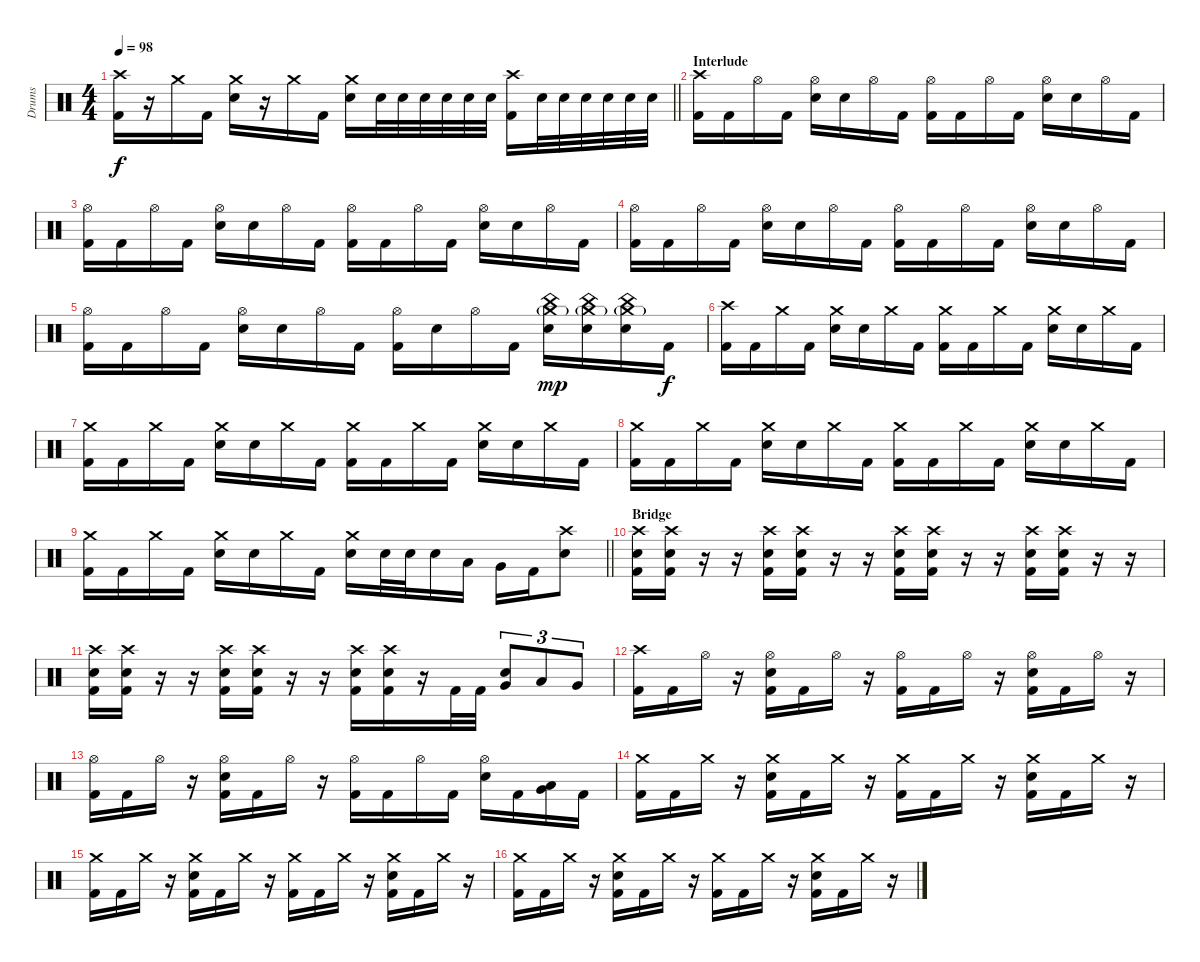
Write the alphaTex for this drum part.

\track ("Drums" "Drums") {instrument percussion}
\staff {score}
\articulation defaults
\ts (4 4)
\tempo 98
\clef neutral
\barLineRight lightlight
\ks c
("Crash high (hit)" "Kick (hit) 2").16{dy f} r.16 "Crash medium (hit)".16 "Kick (hit) 2".16 ("Crash medium (hit)" "Snare (hit) 2").16 r.16 "Crash medium (hit)".16 "Kick (hit) 2".16 ("Crash medium (hit)" "Snare (hit) 2").16 "Snare (hit) 2".32 "Snare (hit) 2".32 "Snare (hit) 2".32 "Snare (hit) 2".32 "Snare (hit) 2".32 "Snare (hit) 2".32 ("Crash high (hit)" "Kick (hit) 2").16 "Snare (hit) 2".32 "Snare (hit) 2".32 "Snare (hit) 2".32 "Snare (hit) 2".32 "Snare (hit) 2".32 "Snare (hit) 2".32 |
\section ("" "Interlude")
("Crash high (hit)" "Kick (hit) 2").16 "Kick (hit) 2".16 "Hi-Hat (open)".16 "Kick (hit) 2".16 ("Hi-Hat (open)" "Snare (hit) 2").16 "Snare (hit) 2".16 "Hi-Hat (open)".16 "Kick (hit) 2".16 ("Hi-Hat (open)" "Kick (hit) 2").16 "Kick (hit) 2".16 "Hi-Hat (open)".16 "Kick (hit) 2".16 ("Hi-Hat (open)" "Snare (hit) 2").16 "Snare (hit) 2".16 "Hi-Hat (open)".16 "Kick (hit) 2".16 |
("Hi-Hat (open)" "Kick (hit) 2").16 "Kick (hit) 2".16 "Hi-Hat (open)".16 "Kick (hit) 2".16 ("Hi-Hat (open)" "Snare (hit) 2").16 "Snare (hit) 2".16 "Hi-Hat (open)".16 "Kick (hit) 2".16 ("Hi-Hat (open)" "Kick (hit) 2").16 "Kick (hit) 2".16 "Hi-Hat (open)".16 "Kick (hit) 2".16 ("Hi-Hat (open)" "Snare (hit) 2").16 "Snare (hit) 2".16 "Hi-Hat (open)".16 "Kick (hit) 2".16 |
("Hi-Hat (open)" "Kick (hit) 2").16 "Kick (hit) 2".16 "Hi-Hat (open)".16 "Kick (hit) 2".16 ("Hi-Hat (open)" "Snare (hit) 2").16 "Snare (hit) 2".16 "Hi-Hat (open)".16 "Kick (hit) 2".16 ("Hi-Hat (open)" "Kick (hit) 2").16 "Kick (hit) 2".16 "Hi-Hat (open)".16 "Kick (hit) 2".16 ("Hi-Hat (open)" "Snare (hit) 2").16 "Snare (hit) 2".16 "Hi-Hat (open)".16 "Kick (hit) 2".16 |
("Hi-Hat (open)" "Kick (hit) 2").16 "Kick (hit) 2".16 "Hi-Hat (open)".16 "Kick (hit) 2".16 ("Hi-Hat (open)" "Snare (hit) 2").16 "Snare (hit) 2".16 "Hi-Hat (open)".16 "Kick (hit) 2".16 ("Hi-Hat (open)" "Kick (hit) 2").16 "Snare (hit) 2".16 "Hi-Hat (open)".16 "Kick (hit) 2".16 ("Crash medium (hit)"{g} "China (hit)" "Snare (hit) 2").16{dy mp} ("Crash medium (hit)"{g} "China (hit)" "Snare (hit) 2").16 ("Crash medium (hit)"{g} "China (hit)" "Snare (hit) 2").16 "Kick (hit) 2".16{dy f} |
("Crash high (hit)" "Kick (hit) 2").16 "Kick (hit) 2".16 "Crash medium (hit)".16 "Kick (hit) 2".16 ("Crash medium (hit)" "Snare (hit) 2").16 "Snare (hit) 2".16 "Crash medium (hit)".16 "Kick (hit) 2".16 ("Crash medium (hit)" "Kick (hit) 2").16 "Kick (hit) 2".16 "Crash medium (hit)".16 "Kick (hit) 2".16 ("Crash medium (hit)" "Snare (hit) 2").16 "Snare (hit) 2".16 "Crash medium (hit)".16 "Kick (hit) 2".16 |
("Crash medium (hit)" "Kick (hit) 2").16 "Kick (hit) 2".16 "Crash medium (hit)".16 "Kick (hit) 2".16 ("Crash medium (hit)" "Snare (hit) 2").16 "Snare (hit) 2".16 "Crash medium (hit)".16 "Kick (hit) 2".16 ("Crash medium (hit)" "Kick (hit) 2").16 "Kick (hit) 2".16 "Crash medium (hit)".16 "Kick (hit) 2".16 ("Crash medium (hit)" "Snare (hit) 2").16 "Snare (hit) 2".16 "Crash medium (hit)".16 "Kick (hit) 2".16 |
("Crash medium (hit)" "Kick (hit) 2").16 "Kick (hit) 2".16 "Crash medium (hit)".16 "Kick (hit) 2".16 ("Crash medium (hit)" "Snare (hit) 2").16 "Snare (hit) 2".16 "Crash medium (hit)".16 "Kick (hit) 2".16 ("Crash medium (hit)" "Kick (hit) 2").16 "Kick (hit) 2".16 "Crash medium (hit)".16 "Kick (hit) 2".16 ("Crash medium (hit)" "Snare (hit) 2").16 "Snare (hit) 2".16 "Crash medium (hit)".16 "Kick (hit) 2".16 |
\barLineRight lightlight
("Crash medium (hit)" "Kick (hit) 2").16 "Kick (hit) 2".16 "Crash medium (hit)".16 "Kick (hit) 2".16 ("Crash medium (hit)" "Snare (hit) 2").16 "Snare (hit) 2".16 "Crash medium (hit)".16 "Kick (hit) 2".16 ("Crash medium (hit)" "Snare (hit) 2").16 "Snare (hit) 2".32 "Snare (hit) 2".32 "Snare (hit) 2".16 "Low Tom (hit)".16 "Very Low Tom (hit)".16 "Kick (hit) 2".16 ("Crash high (hit)" "Snare (hit) 2").8 |
\section ("" "Bridge")
("Crash high (hit)" "Snare (hit) 2" "Kick (hit) 2").16 ("Crash high (hit)" "Snare (hit) 2" "Kick (hit) 2").16 r.16 r.16 ("Crash high (hit)" "Snare (hit) 2" "Kick (hit) 2").16 ("Crash high (hit)" "Snare (hit) 2" "Kick (hit) 2").16 r.16 r.16 ("Crash high (hit)" "Snare (hit) 2" "Kick (hit) 2").16 ("Crash high (hit)" "Snare (hit) 2" "Kick (hit) 2").16 r.16 r.16 ("Crash high (hit)" "Snare (hit) 2" "Kick (hit) 2").16 ("Crash high (hit)" "Snare (hit) 2" "Kick (hit) 2").16 r.16 r.16 |
("Crash high (hit)" "Snare (hit) 2" "Kick (hit) 2").16 ("Crash high (hit)" "Snare (hit) 2" "Kick (hit) 2").16 r.16 r.16 ("Crash high (hit)" "Snare (hit) 2" "Kick (hit) 2").16 ("Crash high (hit)" "Snare (hit) 2" "Kick (hit) 2").16 r.16 r.16 ("Crash high (hit)" "Snare (hit) 2" "Kick (hit) 2").16 ("Crash high (hit)" "Snare (hit) 2" "Kick (hit) 2").16 r.16 "Kick (hit) 2".32 "Kick (hit) 2".32 ("Snare (hit) 2" "Very Low Tom (hit)").8{tu (3 2)} "Low Tom (hit)".8{tu (3 2)} "Very Low Tom (hit)".8{tu (3 2)} |
("Crash high (hit)" "Kick (hit) 2").16 "Kick (hit) 2".16 "Hi-Hat (open)".16 r.16 ("Hi-Hat (open)" "Snare (hit) 2" "Kick (hit) 2").16 "Kick (hit) 2".16 "Hi-Hat (open)".16 r.16 ("Hi-Hat (open)" "Kick (hit) 2").16 "Kick (hit) 2".16 "Hi-Hat (open)".16 r.16 ("Hi-Hat (open)" "Snare (hit) 2" "Kick (hit) 2").16 "Kick (hit) 2".16 "Hi-Hat (open)".16 r.16 |
("Hi-Hat (open)" "Kick (hit) 2").16 "Kick (hit) 2".16 "Hi-Hat (open)".16 r.16 ("Hi-Hat (open)" "Snare (hit) 2" "Kick (hit) 2").16 "Kick (hit) 2".16 "Hi-Hat (open)".16 r.16 ("Hi-Hat (open)" "Kick (hit) 2").16 "Kick (hit) 2".16 "Hi-Hat (open)".16 "Kick (hit) 2".16 ("Hi-Hat (open)" "Snare (hit) 2").16 "Kick (hit) 2".16 ("Low Tom (hit)" "Very Low Tom (hit)").16 "Kick (hit) 2".16 |
("Crash medium (hit)" "Kick (hit) 2").16 "Kick (hit) 2".16 "Crash medium (hit)".16 r.16 ("Crash medium (hit)" "Snare (hit) 2" "Kick (hit) 2").16 "Kick (hit) 2".16 "Crash medium (hit)".16 r.16 ("Crash medium (hit)" "Kick (hit) 2").16 "Kick (hit) 2".16 "Crash medium (hit)".16 r.16 ("Crash medium (hit)" "Snare (hit) 2" "Kick (hit) 2").16 "Kick (hit) 2".16 "Crash medium (hit)".16 r.16 |
("Crash medium (hit)" "Kick (hit) 2").16 "Kick (hit) 2".16 "Crash medium (hit)".16 r.16 ("Crash medium (hit)" "Snare (hit) 2" "Kick (hit) 2").16 "Kick (hit) 2".16 "Crash medium (hit)".16 r.16 ("Crash medium (hit)" "Kick (hit) 2").16 "Kick (hit) 2".16 "Crash medium (hit)".16 r.16 ("Crash medium (hit)" "Snare (hit) 2" "Kick (hit) 2").16 "Kick (hit) 2".16 "Crash medium (hit)".16 r.16 |
("Crash medium (hit)" "Kick (hit) 2").16 "Kick (hit) 2".16 "Crash medium (hit)".16 r.16 ("Crash medium (hit)" "Snare (hit) 2" "Kick (hit) 2").16 "Kick (hit) 2".16 "Crash medium (hit)".16 r.16 ("Crash medium (hit)" "Kick (hit) 2").16 "Kick (hit) 2".16 "Crash medium (hit)".16 r.16 ("Crash medium (hit)" "Snare (hit) 2" "Kick (hit) 2").16 "Kick (hit) 2".16 "Crash medium (hit)".16 r.16
